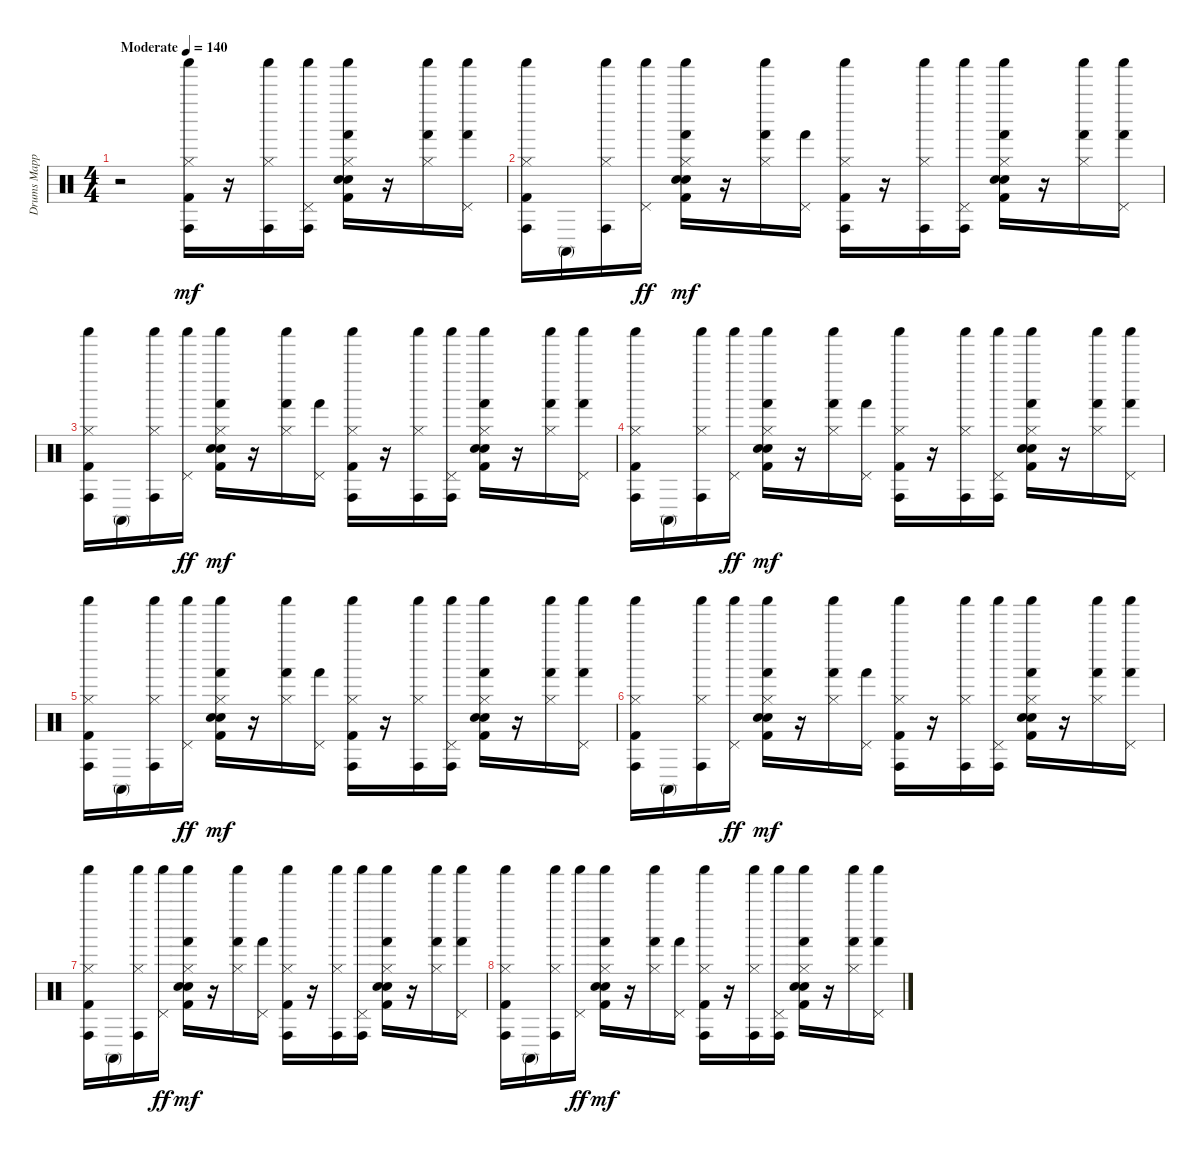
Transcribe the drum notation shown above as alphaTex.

\track ("Drums Mapped" "Drums Mapp") {instrument percussion}
\staff {score}
\articulation defaults
\ts (4 4)
\tempo (140 "Moderate")
\clef neutral
\ks c
r.2{dy mf} ("Kick (hit) 2" "Hi-Hat (closed)" "Conga high (hit)" "Shaker (hit)").16 r.16 ("Hi-Hat (closed)" "Conga high (hit)" "Shaker (hit)").16 ("Pedal Hi-Hat (hit)" "Conga high (hit)" "Shaker (hit)").16 ("Kick (hit) 2" "Hand Clap (hit)" "Electric Snare (hit)" "Hi-Hat (closed)" "Hand (hit)" "Shaker (hit)").16 r.16 ("Hi-Hat (closed)" "Hand (hit)" "Shaker (hit)").16 ("Pedal Hi-Hat (hit)" "Hand (hit)" "Shaker (hit)").16 |
("Kick (hit) 2" "Hi-Hat (closed)" "Conga high (hit)" "Shaker (hit)").16 "Conga high (mute)".16 ("Hi-Hat (closed)" "Conga high (hit)" "Shaker (hit)").16 ("Pedal Hi-Hat (hit)" "Shaker (hit)").16{dy ff} ("Kick (hit) 2" "Hand Clap (hit)" "Electric Snare (hit)" "Hi-Hat (closed)" "Hand (hit)" "Shaker (hit)").16{dy mf} r.16 ("Hi-Hat (closed)" "Hand (hit)" "Shaker (hit)").16 ("Pedal Hi-Hat (hit)" "Hand (hit)").16 ("Kick (hit) 2" "Hi-Hat (closed)" "Conga high (hit)" "Shaker (hit)").16 r.16 ("Hi-Hat (closed)" "Conga high (hit)" "Shaker (hit)").16 ("Pedal Hi-Hat (hit)" "Conga high (hit)" "Shaker (hit)").16 ("Kick (hit) 2" "Hand Clap (hit)" "Electric Snare (hit)" "Hi-Hat (closed)" "Hand (hit)" "Shaker (hit)").16 r.16 ("Hi-Hat (closed)" "Hand (hit)" "Shaker (hit)").16 ("Pedal Hi-Hat (hit)" "Hand (hit)" "Shaker (hit)").16 |
("Kick (hit) 2" "Hi-Hat (closed)" "Conga high (hit)" "Shaker (hit)").16 "Conga high (mute)".16 ("Hi-Hat (closed)" "Conga high (hit)" "Shaker (hit)").16 ("Pedal Hi-Hat (hit)" "Shaker (hit)").16{dy ff} ("Kick (hit) 2" "Hand Clap (hit)" "Electric Snare (hit)" "Hi-Hat (closed)" "Hand (hit)" "Shaker (hit)").16{dy mf} r.16 ("Hi-Hat (closed)" "Hand (hit)" "Shaker (hit)").16 ("Pedal Hi-Hat (hit)" "Hand (hit)").16 ("Kick (hit) 2" "Hi-Hat (closed)" "Conga high (hit)" "Shaker (hit)").16 r.16 ("Hi-Hat (closed)" "Conga high (hit)" "Shaker (hit)").16 ("Pedal Hi-Hat (hit)" "Conga high (hit)" "Shaker (hit)").16 ("Kick (hit) 2" "Hand Clap (hit)" "Electric Snare (hit)" "Hi-Hat (closed)" "Hand (hit)" "Shaker (hit)").16 r.16 ("Hi-Hat (closed)" "Hand (hit)" "Shaker (hit)").16 ("Pedal Hi-Hat (hit)" "Hand (hit)" "Shaker (hit)").16 |
("Kick (hit) 2" "Hi-Hat (closed)" "Conga high (hit)" "Shaker (hit)").16 "Conga high (mute)".16 ("Hi-Hat (closed)" "Conga high (hit)" "Shaker (hit)").16 ("Pedal Hi-Hat (hit)" "Shaker (hit)").16{dy ff} ("Kick (hit) 2" "Hand Clap (hit)" "Electric Snare (hit)" "Hi-Hat (closed)" "Hand (hit)" "Shaker (hit)").16{dy mf} r.16 ("Hi-Hat (closed)" "Hand (hit)" "Shaker (hit)").16 ("Pedal Hi-Hat (hit)" "Hand (hit)").16 ("Kick (hit) 2" "Hi-Hat (closed)" "Conga high (hit)" "Shaker (hit)").16 r.16 ("Hi-Hat (closed)" "Conga high (hit)" "Shaker (hit)").16 ("Pedal Hi-Hat (hit)" "Conga high (hit)" "Shaker (hit)").16 ("Kick (hit) 2" "Hand Clap (hit)" "Electric Snare (hit)" "Hi-Hat (closed)" "Hand (hit)" "Shaker (hit)").16 r.16 ("Hi-Hat (closed)" "Hand (hit)" "Shaker (hit)").16 ("Pedal Hi-Hat (hit)" "Hand (hit)" "Shaker (hit)").16 |
("Kick (hit) 2" "Hi-Hat (closed)" "Conga high (hit)" "Shaker (hit)").16 "Conga high (mute)".16 ("Hi-Hat (closed)" "Conga high (hit)" "Shaker (hit)").16 ("Pedal Hi-Hat (hit)" "Shaker (hit)").16{dy ff} ("Kick (hit) 2" "Hand Clap (hit)" "Electric Snare (hit)" "Hi-Hat (closed)" "Hand (hit)" "Shaker (hit)").16{dy mf} r.16 ("Hi-Hat (closed)" "Hand (hit)" "Shaker (hit)").16 ("Pedal Hi-Hat (hit)" "Hand (hit)").16 ("Kick (hit) 2" "Hi-Hat (closed)" "Conga high (hit)" "Shaker (hit)").16 r.16 ("Hi-Hat (closed)" "Conga high (hit)" "Shaker (hit)").16 ("Pedal Hi-Hat (hit)" "Conga high (hit)" "Shaker (hit)").16 ("Kick (hit) 2" "Hand Clap (hit)" "Electric Snare (hit)" "Hi-Hat (closed)" "Hand (hit)" "Shaker (hit)").16 r.16 ("Hi-Hat (closed)" "Hand (hit)" "Shaker (hit)").16 ("Pedal Hi-Hat (hit)" "Hand (hit)" "Shaker (hit)").16 |
("Kick (hit) 2" "Hi-Hat (closed)" "Conga high (hit)" "Shaker (hit)").16 "Conga high (mute)".16 ("Hi-Hat (closed)" "Conga high (hit)" "Shaker (hit)").16 ("Pedal Hi-Hat (hit)" "Shaker (hit)").16{dy ff} ("Kick (hit) 2" "Hand Clap (hit)" "Electric Snare (hit)" "Hi-Hat (closed)" "Hand (hit)" "Shaker (hit)").16{dy mf} r.16 ("Hi-Hat (closed)" "Hand (hit)" "Shaker (hit)").16 ("Pedal Hi-Hat (hit)" "Hand (hit)").16 ("Kick (hit) 2" "Hi-Hat (closed)" "Conga high (hit)" "Shaker (hit)").16 r.16 ("Hi-Hat (closed)" "Conga high (hit)" "Shaker (hit)").16 ("Pedal Hi-Hat (hit)" "Conga high (hit)" "Shaker (hit)").16 ("Kick (hit) 2" "Hand Clap (hit)" "Electric Snare (hit)" "Hi-Hat (closed)" "Hand (hit)" "Shaker (hit)").16 r.16 ("Hi-Hat (closed)" "Hand (hit)" "Shaker (hit)").16 ("Pedal Hi-Hat (hit)" "Hand (hit)" "Shaker (hit)").16 |
("Kick (hit) 2" "Hi-Hat (closed)" "Conga high (hit)" "Shaker (hit)").16 "Conga high (mute)".16 ("Hi-Hat (closed)" "Conga high (hit)" "Shaker (hit)").16 ("Pedal Hi-Hat (hit)" "Shaker (hit)").16{dy ff} ("Kick (hit) 2" "Hand Clap (hit)" "Electric Snare (hit)" "Hi-Hat (closed)" "Hand (hit)" "Shaker (hit)").16{dy mf} r.16 ("Hi-Hat (closed)" "Hand (hit)" "Shaker (hit)").16 ("Pedal Hi-Hat (hit)" "Hand (hit)").16 ("Kick (hit) 2" "Hi-Hat (closed)" "Conga high (hit)" "Shaker (hit)").16 r.16 ("Hi-Hat (closed)" "Conga high (hit)" "Shaker (hit)").16 ("Pedal Hi-Hat (hit)" "Conga high (hit)" "Shaker (hit)").16 ("Kick (hit) 2" "Hand Clap (hit)" "Electric Snare (hit)" "Hi-Hat (closed)" "Hand (hit)" "Shaker (hit)").16 r.16 ("Hi-Hat (closed)" "Hand (hit)" "Shaker (hit)").16 ("Pedal Hi-Hat (hit)" "Hand (hit)" "Shaker (hit)").16 |
("Kick (hit) 2" "Hi-Hat (closed)" "Conga high (hit)" "Shaker (hit)").16 "Conga high (mute)".16 ("Hi-Hat (closed)" "Conga high (hit)" "Shaker (hit)").16 ("Pedal Hi-Hat (hit)" "Shaker (hit)").16{dy ff} ("Kick (hit) 2" "Hand Clap (hit)" "Electric Snare (hit)" "Hi-Hat (closed)" "Hand (hit)" "Shaker (hit)").16{dy mf} r.16 ("Hi-Hat (closed)" "Hand (hit)" "Shaker (hit)").16 ("Pedal Hi-Hat (hit)" "Hand (hit)").16 ("Kick (hit) 2" "Hi-Hat (closed)" "Conga high (hit)" "Shaker (hit)").16 r.16 ("Hi-Hat (closed)" "Conga high (hit)" "Shaker (hit)").16 ("Pedal Hi-Hat (hit)" "Conga high (hit)" "Shaker (hit)").16 ("Kick (hit) 2" "Hand Clap (hit)" "Electric Snare (hit)" "Hi-Hat (closed)" "Hand (hit)" "Shaker (hit)").16 r.16 ("Hi-Hat (closed)" "Hand (hit)" "Shaker (hit)").16 ("Pedal Hi-Hat (hit)" "Hand (hit)" "Shaker (hit)").16
